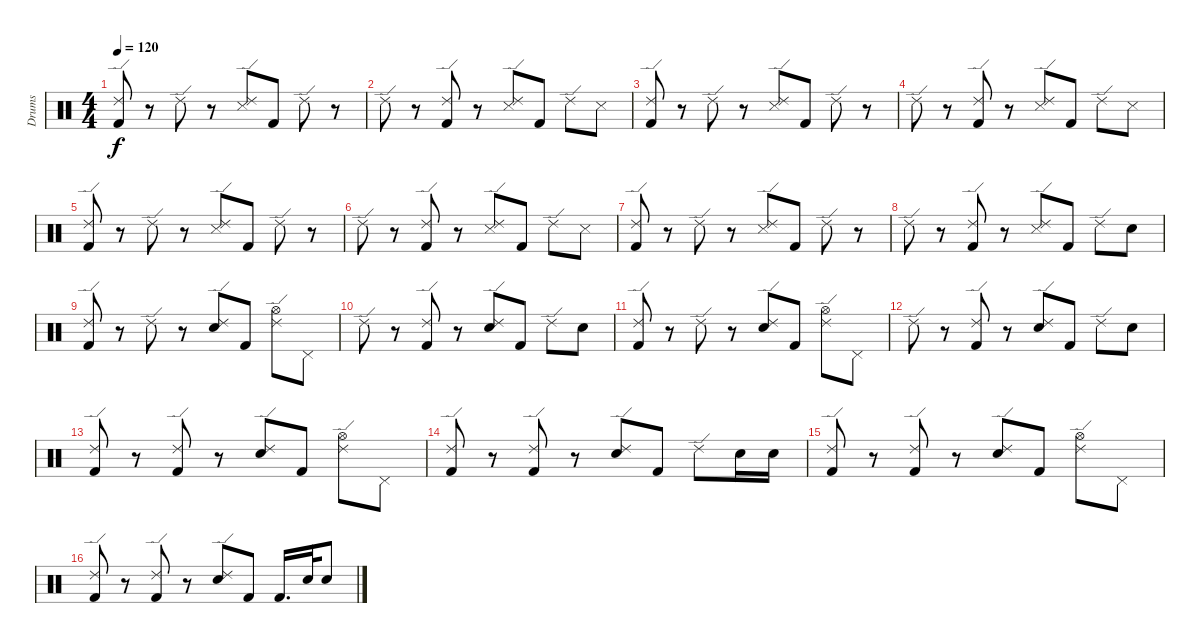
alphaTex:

\track ("Drums" "Drums") {instrument percussion}
\staff {score}
\articulation defaults
\ts (4 4)
\tempo 120
\clef neutral
\ks c
("Ride (edge) 2" "Kick (hit) 2").8{dy f} r.8 "Ride (edge) 2".8 r.8 ("Ride (edge) 2" "Snare (side stick) 3").8 "Kick (hit) 2".8 "Ride (edge) 2".8 r.8 |
"Ride (edge) 2".8 r.8 ("Ride (edge) 2" "Kick (hit) 2").8 r.8 ("Ride (edge) 2" "Snare (side stick) 3").8 "Kick (hit) 2".8 "Ride (edge) 2".8 "Snare (side stick) 3".8 |
("Ride (edge) 2" "Kick (hit) 2").8 r.8 "Ride (edge) 2".8 r.8 ("Ride (edge) 2" "Snare (side stick) 3").8 "Kick (hit) 2".8 "Ride (edge) 2".8 r.8 |
"Ride (edge) 2".8 r.8 ("Ride (edge) 2" "Kick (hit) 2").8 r.8 ("Ride (edge) 2" "Snare (side stick) 3").8 "Kick (hit) 2".8 "Ride (edge) 2".8 "Snare (side stick) 3".8 |
("Ride (edge) 2" "Kick (hit) 2").8 r.8 "Ride (edge) 2".8 r.8 ("Ride (edge) 2" "Snare (side stick) 3").8 "Kick (hit) 2".8 "Ride (edge) 2".8 r.8 |
"Ride (edge) 2".8 r.8 ("Ride (edge) 2" "Kick (hit) 2").8 r.8 ("Ride (edge) 2" "Snare (side stick) 3").8 "Kick (hit) 2".8 "Ride (edge) 2".8 "Snare (side stick) 3".8 |
("Ride (edge) 2" "Kick (hit) 2").8 r.8 "Ride (edge) 2".8 r.8 ("Ride (edge) 2" "Snare (side stick) 3").8 "Kick (hit) 2".8 "Ride (edge) 2".8 r.8 |
"Ride (edge) 2".8 r.8 ("Ride (edge) 2" "Kick (hit) 2").8 r.8 ("Ride (edge) 2" "Snare (side stick) 3").8 "Kick (hit) 2".8 "Ride (edge) 2".8 "Snare (hit) 2".8 |
("Ride (edge) 2" "Kick (hit) 2").8 r.8 "Ride (edge) 2".8 r.8 ("Ride (edge) 2" "Snare (hit) 2").8 "Kick (hit) 2".8 ("Hi-Hat (open)" "Ride (edge) 2").8 "Pedal Hi-Hat (hit)".8 |
"Ride (edge) 2".8 r.8 ("Ride (edge) 2" "Kick (hit) 2").8 r.8 ("Ride (edge) 2" "Snare (hit) 2").8 "Kick (hit) 2".8 "Ride (edge) 2".8 "Snare (hit) 2".8 |
("Ride (edge) 2" "Kick (hit) 2").8 r.8 "Ride (edge) 2".8 r.8 ("Ride (edge) 2" "Snare (hit) 2").8 "Kick (hit) 2".8 ("Hi-Hat (open)" "Ride (edge) 2").8 "Pedal Hi-Hat (hit)".8 |
"Ride (edge) 2".8 r.8 ("Ride (edge) 2" "Kick (hit) 2").8 r.8 ("Ride (edge) 2" "Snare (hit) 2").8 "Kick (hit) 2".8 "Ride (edge) 2".8 "Snare (hit) 2".8 |
("Ride (edge) 2" "Kick (hit) 2").8 r.8 ("Ride (edge) 2" "Kick (hit) 2").8 r.8 ("Ride (edge) 2" "Snare (hit) 2").8 "Kick (hit) 2".8 ("Hi-Hat (open)" "Ride (edge) 2").8 "Pedal Hi-Hat (hit)".8 |
("Ride (edge) 2" "Kick (hit) 2").8 r.8 ("Ride (edge) 2" "Kick (hit) 2").8 r.8 ("Ride (edge) 2" "Snare (hit) 2").8 "Kick (hit) 2".8 "Ride (edge) 2".8 "Snare (hit) 2".16 "Snare (hit) 2".16 |
("Ride (edge) 2" "Kick (hit) 2").8 r.8 ("Ride (edge) 2" "Kick (hit) 2").8 r.8 ("Ride (edge) 2" "Snare (hit) 2").8 "Kick (hit) 2".8 ("Hi-Hat (open)" "Ride (edge) 2").8 "Pedal Hi-Hat (hit)".8 |
("Ride (edge) 2" "Kick (hit) 2").8 r.8 ("Ride (edge) 2" "Kick (hit) 2").8 r.8 ("Ride (edge) 2" "Snare (hit) 2").8 "Kick (hit) 2".8 "Kick (hit) 2".16{d} "Snare (hit) 2".32 "Snare (hit) 2".8
